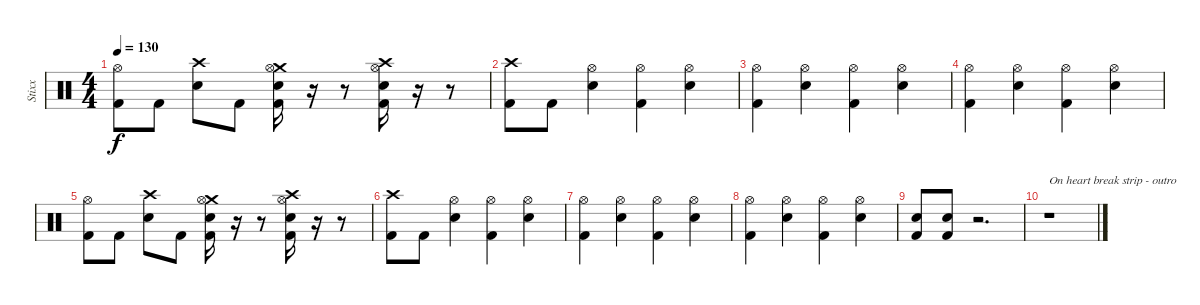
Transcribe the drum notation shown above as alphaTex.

\track ("Stixx" "Stixx") {instrument percussion}
\staff {score}
\articulation defaults
\ts (4 4)
\tempo 130
\clef neutral
\ks c
("Hi-Hat (open)" "Kick (hit) 2").8{dy f} "Kick (hit) 2".8 ("Crash high (hit)" "Snare (hit) 2").8 "Kick (hit) 2".8 ("Crash medium (hit)" "Snare (hit) 2" "Hi-Hat (open)" "Kick (hit) 2").16 r.16 r.8 ("Crash high (hit)" "Snare (hit) 2" "Hi-Hat (open)" "Kick (hit) 2").16 r.16 r.8 |
("Crash high (hit)" "Kick (hit) 2").8 "Kick (hit) 2".8 ("Hi-Hat (open)" "Snare (hit) 2").4 ("Hi-Hat (open)" "Kick (hit) 2").4 ("Hi-Hat (open)" "Snare (hit) 2").4 |
("Hi-Hat (open)" "Kick (hit) 2").4 ("Hi-Hat (open)" "Snare (hit) 2").4 ("Hi-Hat (open)" "Kick (hit) 2").4 ("Hi-Hat (open)" "Snare (hit) 2").4 |
("Hi-Hat (open)" "Kick (hit) 2").4 ("Hi-Hat (open)" "Snare (hit) 2").4 ("Hi-Hat (open)" "Kick (hit) 2").4 ("Hi-Hat (open)" "Snare (hit) 2").4 |
("Hi-Hat (open)" "Kick (hit) 2").8 "Kick (hit) 2".8 ("Crash high (hit)" "Snare (hit) 2").8 "Kick (hit) 2".8 ("Crash medium (hit)" "Snare (hit) 2" "Hi-Hat (open)" "Kick (hit) 2").16 r.16 r.8 ("Crash high (hit)" "Snare (hit) 2" "Hi-Hat (open)" "Kick (hit) 2").16 r.16 r.8 |
("Crash high (hit)" "Kick (hit) 2").8 "Kick (hit) 2".8 ("Hi-Hat (open)" "Snare (hit) 2").4 ("Hi-Hat (open)" "Kick (hit) 2").4 ("Hi-Hat (open)" "Snare (hit) 2").4 |
("Hi-Hat (open)" "Kick (hit) 2").4 ("Hi-Hat (open)" "Snare (hit) 2").4 ("Hi-Hat (open)" "Kick (hit) 2").4 ("Hi-Hat (open)" "Snare (hit) 2").4 |
("Hi-Hat (open)" "Kick (hit) 2").4 ("Hi-Hat (open)" "Snare (hit) 2").4 ("Hi-Hat (open)" "Kick (hit) 2").4 ("Hi-Hat (open)" "Snare (hit) 2").4 |
("Snare (hit) 2" "Kick (hit) 2").8 ("Snare (hit) 2" "Kick (hit) 2").8 r.2{d} |
r.1{txt "On heart break strip - outro"}
